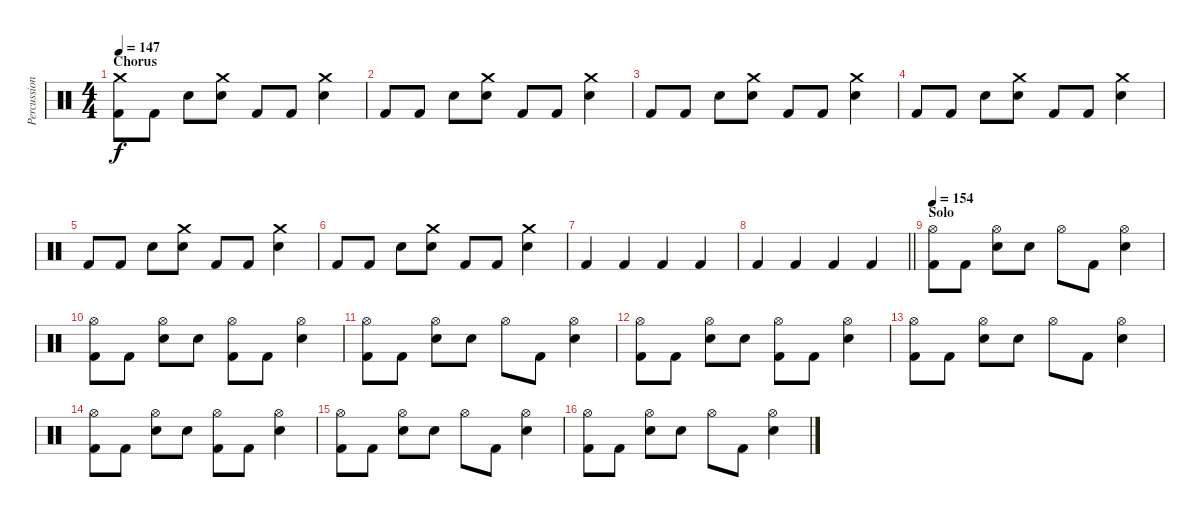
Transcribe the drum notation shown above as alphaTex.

\track ("Percussion" "Percussion") {instrument percussion}
\staff {score}
\articulation defaults
\ts (4 4)
\section ("" "Chorus")
\tempo 147
\clef neutral
\ks c
("Crash medium (hit)" "Kick (hit) 2").8{dy f} "Kick (hit) 2".8 "Electric Snare (hit)".8 ("Crash medium (hit)" "Electric Snare (hit)").8 "Kick (hit) 2".8 "Kick (hit) 2".8 ("Crash medium (hit)" "Electric Snare (hit)").4 |
"Kick (hit) 2".8 "Kick (hit) 2".8 "Electric Snare (hit)".8 ("Crash medium (hit)" "Electric Snare (hit)").8 "Kick (hit) 2".8 "Kick (hit) 2".8 ("Crash medium (hit)" "Electric Snare (hit)").4 |
"Kick (hit) 2".8 "Kick (hit) 2".8 "Electric Snare (hit)".8 ("Crash medium (hit)" "Electric Snare (hit)").8 "Kick (hit) 2".8 "Kick (hit) 2".8 ("Crash medium (hit)" "Electric Snare (hit)").4 |
"Kick (hit) 2".8 "Kick (hit) 2".8 "Electric Snare (hit)".8 ("Crash medium (hit)" "Electric Snare (hit)").8 "Kick (hit) 2".8 "Kick (hit) 2".8 ("Crash medium (hit)" "Electric Snare (hit)").4 |
"Kick (hit) 2".8 "Kick (hit) 2".8 "Electric Snare (hit)".8 ("Crash medium (hit)" "Electric Snare (hit)").8 "Kick (hit) 2".8 "Kick (hit) 2".8 ("Crash medium (hit)" "Electric Snare (hit)").4 |
"Kick (hit) 2".8 "Kick (hit) 2".8 "Electric Snare (hit)".8 ("Crash medium (hit)" "Electric Snare (hit)").8 "Kick (hit) 2".8 "Kick (hit) 2".8 ("Crash medium (hit)" "Electric Snare (hit)").4 |
"Kick (hit) 2".4 "Kick (hit) 2".4 "Kick (hit) 2".4 "Kick (hit) 2".4 |
\barLineRight lightlight "Kick (hit) 2".4 "Kick (hit) 2".4 "Kick (hit) 2".4 "Kick (hit) 2".4
|
\section ("" "Solo")
\tempo 154
("Hi-Hat (open)" "Kick (hit) 2").8 "Kick (hit) 2".8 ("Hi-Hat (open)" "Electric Snare (hit)").8 "Electric Snare (hit)".8 "Hi-Hat (open)".8 "Kick (hit) 2".8 ("Hi-Hat (open)" "Electric Snare (hit)").4 |
("Hi-Hat (open)" "Kick (hit) 2").8 "Kick (hit) 2".8 ("Hi-Hat (open)" "Electric Snare (hit)").8 "Electric Snare (hit)".8 ("Hi-Hat (open)" "Kick (hit) 2").8 "Kick (hit) 2".8 ("Hi-Hat (open)" "Electric Snare (hit)").4 |
("Hi-Hat (open)" "Kick (hit) 2").8 "Kick (hit) 2".8 ("Hi-Hat (open)" "Electric Snare (hit)").8 "Electric Snare (hit)".8 "Hi-Hat (open)".8 "Kick (hit) 2".8 ("Hi-Hat (open)" "Electric Snare (hit)").4 |
("Hi-Hat (open)" "Kick (hit) 2").8 "Kick (hit) 2".8 ("Hi-Hat (open)" "Electric Snare (hit)").8 "Electric Snare (hit)".8 ("Hi-Hat (open)" "Kick (hit) 2").8 "Kick (hit) 2".8 ("Hi-Hat (open)" "Electric Snare (hit)").4 |
("Hi-Hat (open)" "Kick (hit) 2").8 "Kick (hit) 2".8 ("Hi-Hat (open)" "Electric Snare (hit)").8 "Electric Snare (hit)".8 "Hi-Hat (open)".8 "Kick (hit) 2".8 ("Hi-Hat (open)" "Electric Snare (hit)").4 |
("Hi-Hat (open)" "Kick (hit) 2").8 "Kick (hit) 2".8 ("Hi-Hat (open)" "Electric Snare (hit)").8 "Electric Snare (hit)".8 ("Hi-Hat (open)" "Kick (hit) 2").8 "Kick (hit) 2".8 ("Hi-Hat (open)" "Electric Snare (hit)").4 |
("Hi-Hat (open)" "Kick (hit) 2").8 "Kick (hit) 2".8 ("Hi-Hat (open)" "Electric Snare (hit)").8 "Electric Snare (hit)".8 "Hi-Hat (open)".8 "Kick (hit) 2".8 ("Hi-Hat (open)" "Electric Snare (hit)").4 |
("Hi-Hat (open)" "Kick (hit) 2").8 "Kick (hit) 2".8 ("Hi-Hat (open)" "Electric Snare (hit)").8 "Electric Snare (hit)".8 "Hi-Hat (open)".8 "Kick (hit) 2".8 ("Hi-Hat (open)" "Electric Snare (hit)").4
